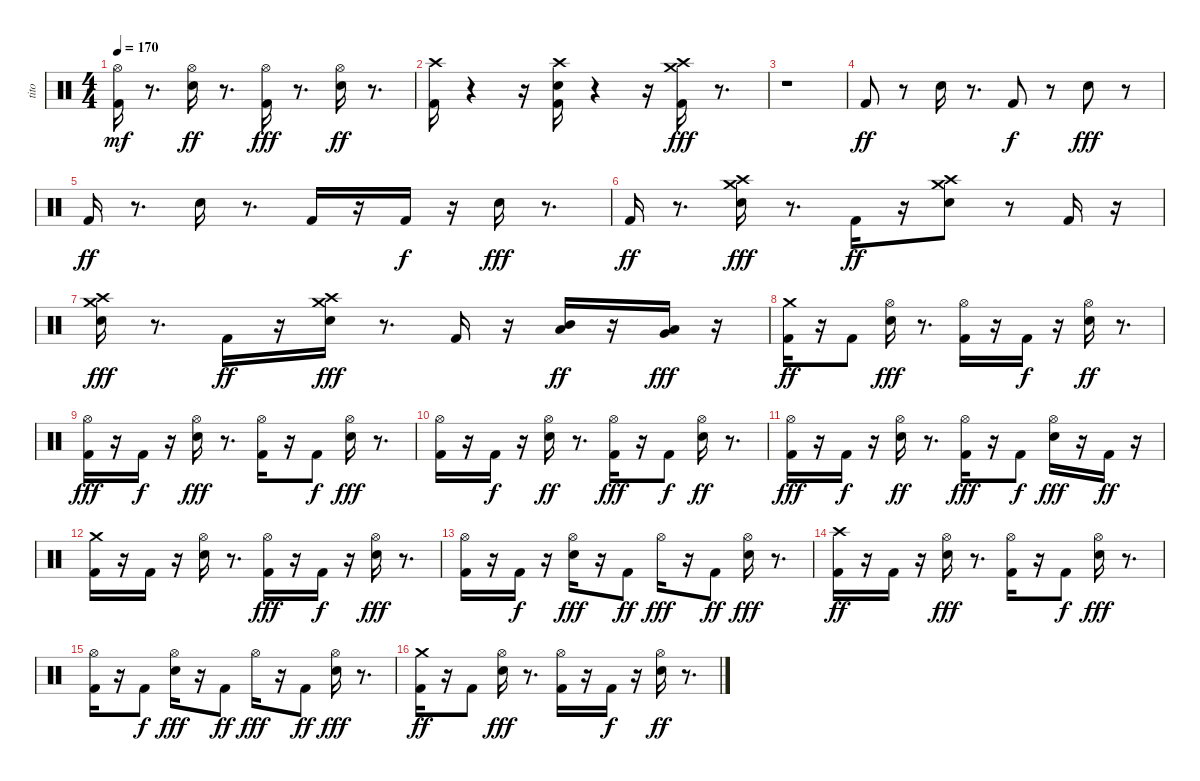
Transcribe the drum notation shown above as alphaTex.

\track ("tito" "tito") {instrument percussion}
\staff {score}
\articulation defaults
\ts (4 4)
\tempo 170
\clef neutral
\ks c
("Hi-Hat (open)" "Kick (hit) 2").16{dy mf} r.8{d} ("Hi-Hat (open)" "Snare (hit) 2").16{dy ff} r.8{d} ("Kick (hit) 2" "Hi-Hat (open)").16{dy fff} r.8{d} ("Hi-Hat (open)" "Snare (hit) 2").16{dy ff} r.8{d} |
("Crash high (hit)" "Kick (hit) 2").16 r.4 r.16 ("Crash high (hit)" "Kick (hit) 2" "Snare (hit) 2").16 r.4 r.16 ("Crash medium (hit)" "Kick (hit) 2" "Crash high (hit)").16{dy fff} r.8{d} |
r.1 |
"Kick (hit) 2".8{dy ff} r.8 "Snare (hit) 2".16 r.8{d} "Kick (hit) 2".8{dy f} r.8 "Snare (hit) 2".8{dy fff} r.8 |
"Kick (hit) 2".16{dy ff} r.8{d} "Snare (hit) 2".16 r.8{d} "Kick (hit) 2".16 r.16 "Kick (hit) 2".16{dy f} r.16 "Snare (hit) 2".16{dy fff} r.8{d} |
"Kick (hit) 2".16{dy ff} r.8{d} ("Snare (hit) 2" "Crash high (hit)" "Crash medium (hit)").16{dy fff} r.8{d} "Kick (hit) 2".16{dy ff} r.16 ("Snare (hit) 2" "Crash high (hit)" "Crash medium (hit)").8 r.8 "Kick (hit) 2".16 r.16 |
("Snare (hit) 2" "Crash high (hit)" "Crash medium (hit)").16{dy fff} r.8{d} "Kick (hit) 2".16{dy ff} r.16 ("Snare (hit) 2" "Crash medium (hit)" "Crash high (hit)").16{dy fff} r.8{d} "Kick (hit) 2".16 r.16 ("Mid Tom (hit)" "Low Tom (hit)").16{dy ff} r.16 ("Very Low Tom (hit)" "Low Tom (hit)").16{dy fff} r.16 |
("Kick (hit) 2" "Crash medium (hit)").16{dy ff} r.16 "Kick (hit) 2".8 ("Hi-Hat (open)" "Snare (hit) 2").16{dy fff} r.8{d} ("Kick (hit) 2" "Hi-Hat (open)").16 r.16 "Kick (hit) 2".16{dy f} r.16 ("Hi-Hat (open)" "Snare (hit) 2").16{dy ff} r.8{d} |
("Hi-Hat (open)" "Kick (hit) 2").16{dy fff} r.16 "Kick (hit) 2".16{dy f} r.16 ("Snare (hit) 2" "Hi-Hat (open)").16{dy fff} r.8{d} ("Kick (hit) 2" "Hi-Hat (open)").16 r.16 "Kick (hit) 2".8{dy f} ("Snare (hit) 2" "Hi-Hat (open)").16{dy fff} r.8{d} |
("Kick (hit) 2" "Hi-Hat (open)").16 r.16 "Kick (hit) 2".16{dy f} r.16 ("Hi-Hat (open)" "Snare (hit) 2").16{dy ff} r.8{d} ("Kick (hit) 2" "Hi-Hat (open)").16{dy fff} r.16 "Kick (hit) 2".8{dy f} ("Hi-Hat (open)" "Snare (hit) 2").16{dy ff} r.8{d} |
("Kick (hit) 2" "Hi-Hat (open)").16{dy fff} r.16 "Kick (hit) 2".16{dy f} r.16 ("Hi-Hat (open)" "Snare (hit) 2").16{dy ff} r.8{d} ("Kick (hit) 2" "Hi-Hat (open)").16{dy fff} r.16 "Kick (hit) 2".8{dy f} ("Snare (hit) 2" "Hi-Hat (open)").16{dy fff} r.16 "Kick (hit) 2".16{dy ff} r.16 |
("Crash medium (hit)" "Kick (hit) 2").16 r.16 "Kick (hit) 2".16 r.16 ("Snare (hit) 2" "Hi-Hat (open)").16 r.8{d} ("Kick (hit) 2" "Hi-Hat (open)").16{dy fff} r.16 "Kick (hit) 2".16{dy f} r.16 ("Snare (hit) 2" "Hi-Hat (open)").16{dy fff} r.8{d} |
("Kick (hit) 2" "Hi-Hat (open)").16 r.16 "Kick (hit) 2".16{dy f} r.16 ("Snare (hit) 2" "Hi-Hat (open)").16{dy fff} r.16 "Kick (hit) 2".8{dy ff} "Hi-Hat (open)".16{dy fff} r.16 "Kick (hit) 2".8{dy ff} ("Snare (hit) 2" "Hi-Hat (open)").16{dy fff} r.8{d} |
("Crash high (hit)" "Kick (hit) 2").16{dy ff} r.16 "Kick (hit) 2".16 r.16 ("Hi-Hat (open)" "Snare (hit) 2").16{dy fff} r.8{d} ("Kick (hit) 2" "Hi-Hat (open)").16 r.16 "Kick (hit) 2".8{dy f} ("Snare (hit) 2" "Hi-Hat (open)").16{dy fff} r.8{d} |
("Kick (hit) 2" "Hi-Hat (open)").16 r.16 "Kick (hit) 2".8{dy f} ("Snare (hit) 2" "Hi-Hat (open)").16{dy fff} r.16 "Kick (hit) 2".8{dy ff} "Hi-Hat (open)".16{dy fff} r.16 "Kick (hit) 2".8{dy ff} ("Snare (hit) 2" "Hi-Hat (open)").16{dy fff} r.8{d} |
("Kick (hit) 2" "Crash medium (hit)").16{dy ff} r.16 "Kick (hit) 2".8 ("Hi-Hat (open)" "Snare (hit) 2").16{dy fff} r.8{d} ("Kick (hit) 2" "Hi-Hat (open)").16 r.16 "Kick (hit) 2".16{dy f} r.16 ("Hi-Hat (open)" "Snare (hit) 2").16{dy ff} r.8{d}
